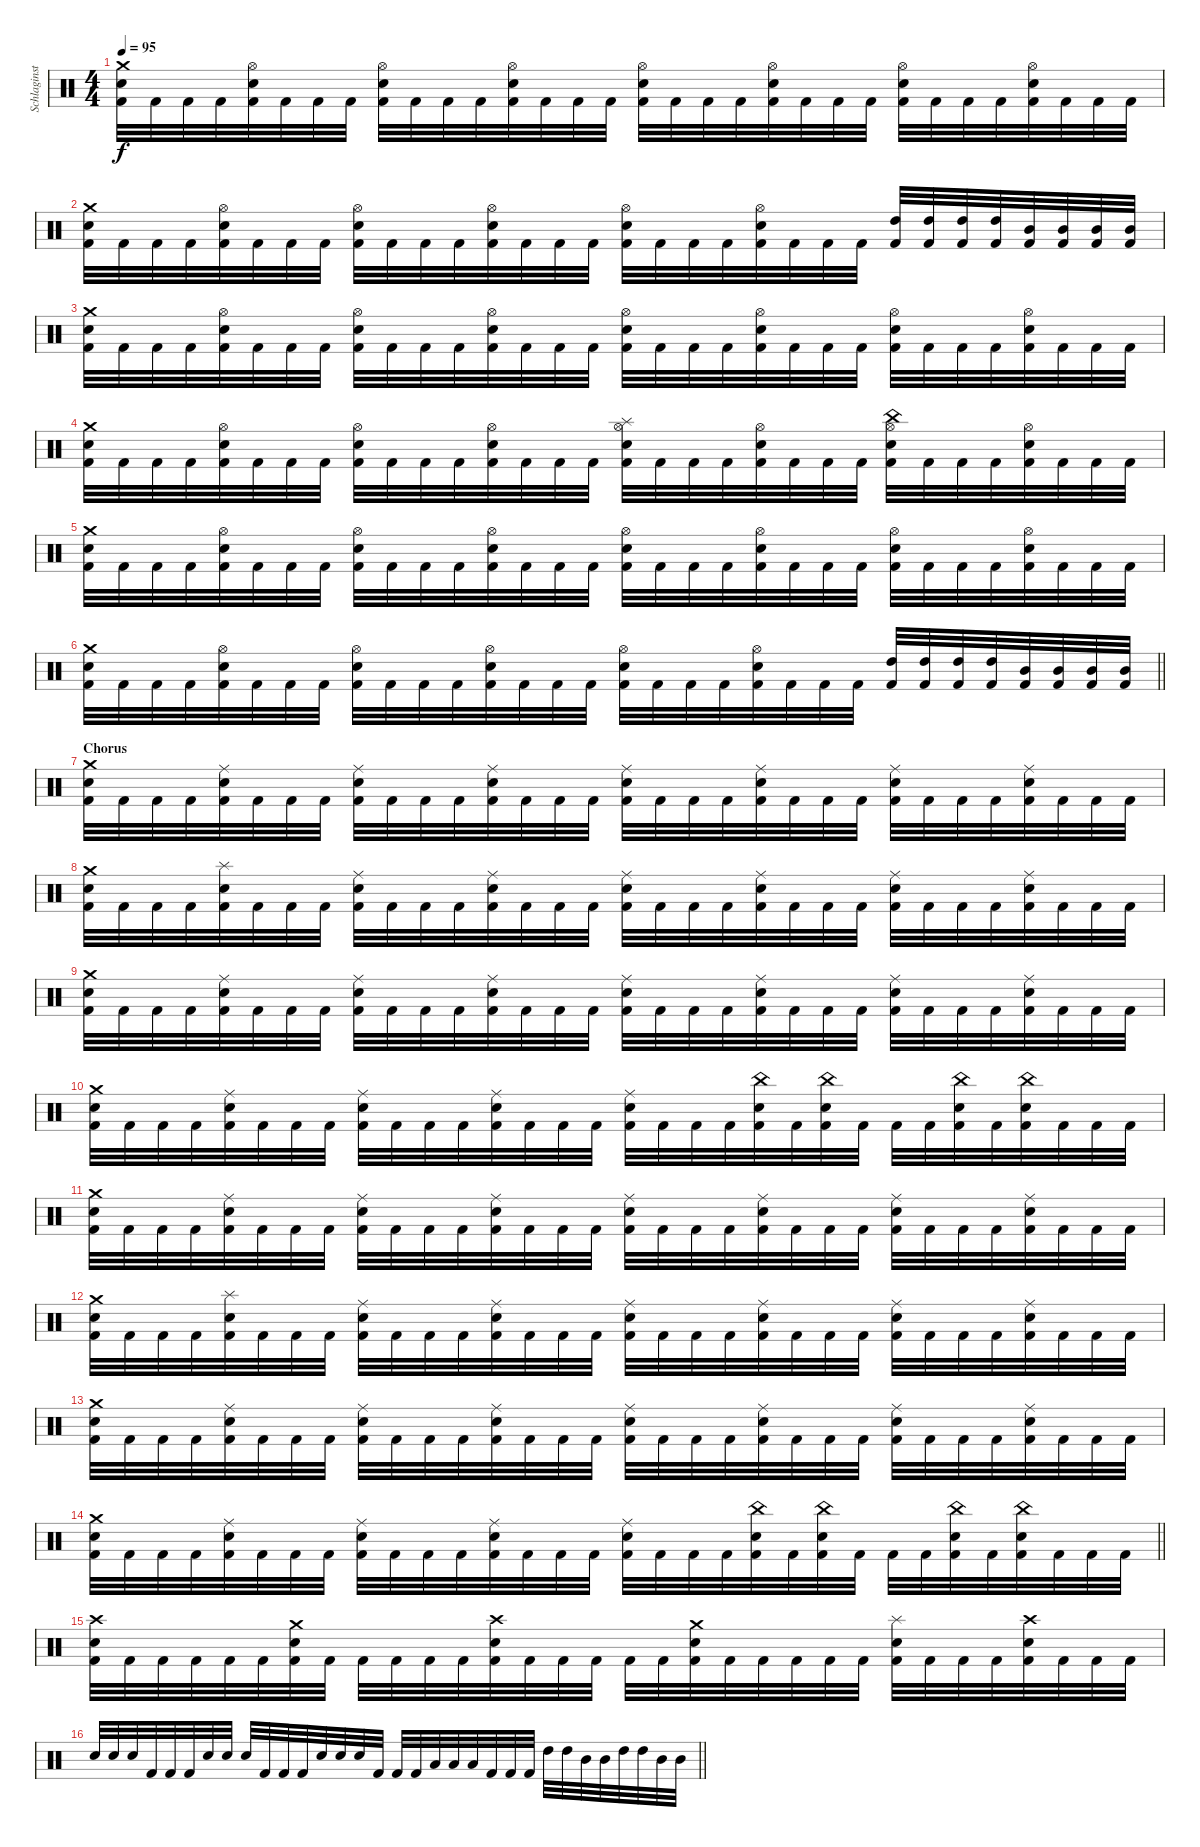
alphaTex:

\track ("Schlaginstrumente - Auswahl" "Schlaginst") {instrument percussion}
\staff {score}
\articulation defaults
\ts (4 4)
\tempo 95
\clef neutral
\ks c
("Crash medium (hit)" "Snare (hit) 2" "Kick (hit) 2").32{dy f} "Kick (hit) 2".32 "Kick (hit) 2".32 "Kick (hit) 2".32 ("Snare (hit) 2" "Hi-Hat (open)" "Kick (hit) 2").32 "Kick (hit) 2".32 "Kick (hit) 2".32 "Kick (hit) 2".32 ("Snare (hit) 2" "Hi-Hat (open)" "Kick (hit) 2").32 "Kick (hit) 2".32 "Kick (hit) 2".32 "Kick (hit) 2".32 ("Snare (hit) 2" "Hi-Hat (open)" "Kick (hit) 2").32 "Kick (hit) 2".32 "Kick (hit) 2".32 "Kick (hit) 2".32 ("Snare (hit) 2" "Hi-Hat (open)" "Kick (hit) 2").32 "Kick (hit) 2".32 "Kick (hit) 2".32 "Kick (hit) 2".32 ("Snare (hit) 2" "Hi-Hat (open)" "Kick (hit) 2").32 "Kick (hit) 2".32 "Kick (hit) 2".32 "Kick (hit) 2".32 ("Snare (hit) 2" "Hi-Hat (open)" "Kick (hit) 2").32 "Kick (hit) 2".32 "Kick (hit) 2".32 "Kick (hit) 2".32 ("Snare (hit) 2" "Hi-Hat (open)" "Kick (hit) 2").32 "Kick (hit) 2".32 "Kick (hit) 2".32 "Kick (hit) 2".32 |
("Crash medium (hit)" "Snare (hit) 2" "Kick (hit) 2").32 "Kick (hit) 2".32 "Kick (hit) 2".32 "Kick (hit) 2".32 ("Snare (hit) 2" "Hi-Hat (open)" "Kick (hit) 2").32 "Kick (hit) 2".32 "Kick (hit) 2".32 "Kick (hit) 2".32 ("Snare (hit) 2" "Hi-Hat (open)" "Kick (hit) 2").32 "Kick (hit) 2".32 "Kick (hit) 2".32 "Kick (hit) 2".32 ("Snare (hit) 2" "Hi-Hat (open)" "Kick (hit) 2").32 "Kick (hit) 2".32 "Kick (hit) 2".32 "Kick (hit) 2".32 ("Snare (hit) 2" "Hi-Hat (open)" "Kick (hit) 2").32 "Kick (hit) 2".32 "Kick (hit) 2".32 "Kick (hit) 2".32 ("Snare (hit) 2" "Hi-Hat (open)" "Kick (hit) 2").32 "Kick (hit) 2".32 "Kick (hit) 2".32 "Kick (hit) 2".32 ("High Tom (hit)" "Kick (hit) 2").32 ("High Tom (hit)" "Kick (hit) 2").32 ("High Tom (hit)" "Kick (hit) 2").32 ("High Tom (hit)" "Kick (hit) 2").32 ("Mid Tom (hit)" "Kick (hit) 2").32 ("Mid Tom (hit)" "Kick (hit) 2").32 ("Mid Tom (hit)" "Kick (hit) 2").32 ("Mid Tom (hit)" "Kick (hit) 2").32 |
("Crash medium (hit)" "Snare (hit) 2" "Kick (hit) 2").32 "Kick (hit) 2".32 "Kick (hit) 2".32 "Kick (hit) 2".32 ("Snare (hit) 2" "Hi-Hat (open)" "Kick (hit) 2").32 "Kick (hit) 2".32 "Kick (hit) 2".32 "Kick (hit) 2".32 ("Snare (hit) 2" "Hi-Hat (open)" "Kick (hit) 2").32 "Kick (hit) 2".32 "Kick (hit) 2".32 "Kick (hit) 2".32 ("Snare (hit) 2" "Hi-Hat (open)" "Kick (hit) 2").32 "Kick (hit) 2".32 "Kick (hit) 2".32 "Kick (hit) 2".32 ("Snare (hit) 2" "Hi-Hat (open)" "Kick (hit) 2").32 "Kick (hit) 2".32 "Kick (hit) 2".32 "Kick (hit) 2".32 ("Snare (hit) 2" "Hi-Hat (open)" "Kick (hit) 2").32 "Kick (hit) 2".32 "Kick (hit) 2".32 "Kick (hit) 2".32 ("Snare (hit) 2" "Hi-Hat (open)" "Kick (hit) 2").32 "Kick (hit) 2".32 "Kick (hit) 2".32 "Kick (hit) 2".32 ("Snare (hit) 2" "Hi-Hat (open)" "Kick (hit) 2").32 "Kick (hit) 2".32 "Kick (hit) 2".32 "Kick (hit) 2".32 |
("Crash medium (hit)" "Snare (hit) 2" "Kick (hit) 2").32 "Kick (hit) 2".32 "Kick (hit) 2".32 "Kick (hit) 2".32 ("Snare (hit) 2" "Hi-Hat (open)" "Kick (hit) 2").32 "Kick (hit) 2".32 "Kick (hit) 2".32 "Kick (hit) 2".32 ("Snare (hit) 2" "Hi-Hat (open)" "Kick (hit) 2").32 "Kick (hit) 2".32 "Kick (hit) 2".32 "Kick (hit) 2".32 ("Snare (hit) 2" "Hi-Hat (open)" "Kick (hit) 2").32 "Kick (hit) 2".32 "Kick (hit) 2".32 "Kick (hit) 2".32 ("Splash (hit)" "Snare (hit) 2" "Hi-Hat (open)" "Kick (hit) 2").32 "Kick (hit) 2".32 "Kick (hit) 2".32 "Kick (hit) 2".32 ("Snare (hit) 2" "Hi-Hat (open)" "Kick (hit) 2").32 "Kick (hit) 2".32 "Kick (hit) 2".32 "Kick (hit) 2".32 ("China (hit)" "Snare (hit) 2" "Hi-Hat (open)" "Kick (hit) 2").32 "Kick (hit) 2".32 "Kick (hit) 2".32 "Kick (hit) 2".32 ("Snare (hit) 2" "Hi-Hat (open)" "Kick (hit) 2").32 "Kick (hit) 2".32 "Kick (hit) 2".32 "Kick (hit) 2".32 |
("Crash medium (hit)" "Snare (hit) 2" "Kick (hit) 2").32 "Kick (hit) 2".32 "Kick (hit) 2".32 "Kick (hit) 2".32 ("Snare (hit) 2" "Hi-Hat (open)" "Kick (hit) 2").32 "Kick (hit) 2".32 "Kick (hit) 2".32 "Kick (hit) 2".32 ("Snare (hit) 2" "Hi-Hat (open)" "Kick (hit) 2").32 "Kick (hit) 2".32 "Kick (hit) 2".32 "Kick (hit) 2".32 ("Snare (hit) 2" "Hi-Hat (open)" "Kick (hit) 2").32 "Kick (hit) 2".32 "Kick (hit) 2".32 "Kick (hit) 2".32 ("Snare (hit) 2" "Hi-Hat (open)" "Kick (hit) 2").32 "Kick (hit) 2".32 "Kick (hit) 2".32 "Kick (hit) 2".32 ("Snare (hit) 2" "Hi-Hat (open)" "Kick (hit) 2").32 "Kick (hit) 2".32 "Kick (hit) 2".32 "Kick (hit) 2".32 ("Snare (hit) 2" "Hi-Hat (open)" "Kick (hit) 2").32 "Kick (hit) 2".32 "Kick (hit) 2".32 "Kick (hit) 2".32 ("Snare (hit) 2" "Hi-Hat (open)" "Kick (hit) 2").32 "Kick (hit) 2".32 "Kick (hit) 2".32 "Kick (hit) 2".32 |
\barLineRight lightlight
("Crash medium (hit)" "Snare (hit) 2" "Kick (hit) 2").32 "Kick (hit) 2".32 "Kick (hit) 2".32 "Kick (hit) 2".32 ("Snare (hit) 2" "Hi-Hat (open)" "Kick (hit) 2").32 "Kick (hit) 2".32 "Kick (hit) 2".32 "Kick (hit) 2".32 ("Snare (hit) 2" "Hi-Hat (open)" "Kick (hit) 2").32 "Kick (hit) 2".32 "Kick (hit) 2".32 "Kick (hit) 2".32 ("Snare (hit) 2" "Hi-Hat (open)" "Kick (hit) 2").32 "Kick (hit) 2".32 "Kick (hit) 2".32 "Kick (hit) 2".32 ("Snare (hit) 2" "Hi-Hat (open)" "Kick (hit) 2").32 "Kick (hit) 2".32 "Kick (hit) 2".32 "Kick (hit) 2".32 ("Snare (hit) 2" "Hi-Hat (open)" "Kick (hit) 2").32 "Kick (hit) 2".32 "Kick (hit) 2".32 "Kick (hit) 2".32 ("High Tom (hit)" "Kick (hit) 2").32 ("High Tom (hit)" "Kick (hit) 2").32 ("High Tom (hit)" "Kick (hit) 2").32 ("High Tom (hit)" "Kick (hit) 2").32 ("Mid Tom (hit)" "Kick (hit) 2").32 ("Mid Tom (hit)" "Kick (hit) 2").32 ("Mid Tom (hit)" "Kick (hit) 2").32 ("Mid Tom (hit)" "Kick (hit) 2").32 |
\section ("" "Chorus")
("Crash medium (hit)" "Snare (hit) 2" "Kick (hit) 2").32 "Kick (hit) 2".32 "Kick (hit) 2".32 "Kick (hit) 2".32 ("Snare (hit) 2" "Ride (middle)" "Kick (hit) 2").32 "Kick (hit) 2".32 "Kick (hit) 2".32 "Kick (hit) 2".32 ("Snare (hit) 2" "Ride (middle)" "Kick (hit) 2").32 "Kick (hit) 2".32 "Kick (hit) 2".32 "Kick (hit) 2".32 ("Snare (hit) 2" "Ride (middle)" "Kick (hit) 2").32 "Kick (hit) 2".32 "Kick (hit) 2".32 "Kick (hit) 2".32 ("Snare (hit) 2" "Ride (middle)" "Kick (hit) 2").32 "Kick (hit) 2".32 "Kick (hit) 2".32 "Kick (hit) 2".32 ("Snare (hit) 2" "Ride (middle)" "Kick (hit) 2").32 "Kick (hit) 2".32 "Kick (hit) 2".32 "Kick (hit) 2".32 ("Snare (hit) 2" "Ride (middle)" "Kick (hit) 2").32 "Kick (hit) 2".32 "Kick (hit) 2".32 "Kick (hit) 2".32 ("Snare (hit) 2" "Ride (middle)" "Kick (hit) 2").32 "Kick (hit) 2".32 "Kick (hit) 2".32 "Kick (hit) 2".32 |
("Crash medium (hit)" "Snare (hit) 2" "Kick (hit) 2").32 "Kick (hit) 2".32 "Kick (hit) 2".32 "Kick (hit) 2".32 ("Snare (hit) 2" "Splash (hit)" "Kick (hit) 2").32 "Kick (hit) 2".32 "Kick (hit) 2".32 "Kick (hit) 2".32 ("Snare (hit) 2" "Ride (middle)" "Kick (hit) 2").32 "Kick (hit) 2".32 "Kick (hit) 2".32 "Kick (hit) 2".32 ("Snare (hit) 2" "Ride (middle)" "Kick (hit) 2").32 "Kick (hit) 2".32 "Kick (hit) 2".32 "Kick (hit) 2".32 ("Snare (hit) 2" "Ride (middle)" "Kick (hit) 2").32 "Kick (hit) 2".32 "Kick (hit) 2".32 "Kick (hit) 2".32 ("Snare (hit) 2" "Ride (middle)" "Kick (hit) 2").32 "Kick (hit) 2".32 "Kick (hit) 2".32 "Kick (hit) 2".32 ("Snare (hit) 2" "Ride (middle)" "Kick (hit) 2").32 "Kick (hit) 2".32 "Kick (hit) 2".32 "Kick (hit) 2".32 ("Snare (hit) 2" "Ride (middle)" "Kick (hit) 2").32 "Kick (hit) 2".32 "Kick (hit) 2".32 "Kick (hit) 2".32 |
("Crash medium (hit)" "Snare (hit) 2" "Kick (hit) 2").32 "Kick (hit) 2".32 "Kick (hit) 2".32 "Kick (hit) 2".32 ("Snare (hit) 2" "Ride (middle)" "Kick (hit) 2").32 "Kick (hit) 2".32 "Kick (hit) 2".32 "Kick (hit) 2".32 ("Snare (hit) 2" "Ride (middle)" "Kick (hit) 2").32 "Kick (hit) 2".32 "Kick (hit) 2".32 "Kick (hit) 2".32 ("Snare (hit) 2" "Ride (middle)" "Kick (hit) 2").32 "Kick (hit) 2".32 "Kick (hit) 2".32 "Kick (hit) 2".32 ("Snare (hit) 2" "Ride (middle)" "Kick (hit) 2").32 "Kick (hit) 2".32 "Kick (hit) 2".32 "Kick (hit) 2".32 ("Snare (hit) 2" "Ride (middle)" "Kick (hit) 2").32 "Kick (hit) 2".32 "Kick (hit) 2".32 "Kick (hit) 2".32 ("Snare (hit) 2" "Ride (middle)" "Kick (hit) 2").32 "Kick (hit) 2".32 "Kick (hit) 2".32 "Kick (hit) 2".32 ("Snare (hit) 2" "Ride (middle)" "Kick (hit) 2").32 "Kick (hit) 2".32 "Kick (hit) 2".32 "Kick (hit) 2".32 |
("Crash medium (hit)" "Snare (hit) 2" "Kick (hit) 2").32 "Kick (hit) 2".32 "Kick (hit) 2".32 "Kick (hit) 2".32 ("Snare (hit) 2" "Ride (middle)" "Kick (hit) 2").32 "Kick (hit) 2".32 "Kick (hit) 2".32 "Kick (hit) 2".32 ("Snare (hit) 2" "Ride (middle)" "Kick (hit) 2").32 "Kick (hit) 2".32 "Kick (hit) 2".32 "Kick (hit) 2".32 ("Snare (hit) 2" "Ride (middle)" "Kick (hit) 2").32 "Kick (hit) 2".32 "Kick (hit) 2".32 "Kick (hit) 2".32 ("Snare (hit) 2" "Ride (middle)" "Kick (hit) 2").32 "Kick (hit) 2".32 "Kick (hit) 2".32 "Kick (hit) 2".32 ("China (hit)" "Snare (hit) 2" "Kick (hit) 2").32 "Kick (hit) 2".32 ("China (hit)" "Snare (hit) 2" "Kick (hit) 2").32 "Kick (hit) 2".32 "Kick (hit) 2".32 "Kick (hit) 2".32 ("China (hit)" "Snare (hit) 2" "Kick (hit) 2").32 "Kick (hit) 2".32 ("China (hit)" "Snare (hit) 2" "Kick (hit) 2").32 "Kick (hit) 2".32 "Kick (hit) 2".32 "Kick (hit) 2".32 |
("Crash medium (hit)" "Snare (hit) 2" "Kick (hit) 2").32 "Kick (hit) 2".32 "Kick (hit) 2".32 "Kick (hit) 2".32 ("Snare (hit) 2" "Ride (middle)" "Kick (hit) 2").32 "Kick (hit) 2".32 "Kick (hit) 2".32 "Kick (hit) 2".32 ("Snare (hit) 2" "Ride (middle)" "Kick (hit) 2").32 "Kick (hit) 2".32 "Kick (hit) 2".32 "Kick (hit) 2".32 ("Snare (hit) 2" "Ride (middle)" "Kick (hit) 2").32 "Kick (hit) 2".32 "Kick (hit) 2".32 "Kick (hit) 2".32 ("Snare (hit) 2" "Ride (middle)" "Kick (hit) 2").32 "Kick (hit) 2".32 "Kick (hit) 2".32 "Kick (hit) 2".32 ("Snare (hit) 2" "Ride (middle)" "Kick (hit) 2").32 "Kick (hit) 2".32 "Kick (hit) 2".32 "Kick (hit) 2".32 ("Snare (hit) 2" "Ride (middle)" "Kick (hit) 2").32 "Kick (hit) 2".32 "Kick (hit) 2".32 "Kick (hit) 2".32 ("Snare (hit) 2" "Ride (middle)" "Kick (hit) 2").32 "Kick (hit) 2".32 "Kick (hit) 2".32 "Kick (hit) 2".32 |
("Crash medium (hit)" "Snare (hit) 2" "Kick (hit) 2").32 "Kick (hit) 2".32 "Kick (hit) 2".32 "Kick (hit) 2".32 ("Snare (hit) 2" "Splash (hit)" "Kick (hit) 2").32 "Kick (hit) 2".32 "Kick (hit) 2".32 "Kick (hit) 2".32 ("Snare (hit) 2" "Ride (middle)" "Kick (hit) 2").32 "Kick (hit) 2".32 "Kick (hit) 2".32 "Kick (hit) 2".32 ("Snare (hit) 2" "Ride (middle)" "Kick (hit) 2").32 "Kick (hit) 2".32 "Kick (hit) 2".32 "Kick (hit) 2".32 ("Snare (hit) 2" "Ride (middle)" "Kick (hit) 2").32 "Kick (hit) 2".32 "Kick (hit) 2".32 "Kick (hit) 2".32 ("Snare (hit) 2" "Ride (middle)" "Kick (hit) 2").32 "Kick (hit) 2".32 "Kick (hit) 2".32 "Kick (hit) 2".32 ("Snare (hit) 2" "Ride (middle)" "Kick (hit) 2").32 "Kick (hit) 2".32 "Kick (hit) 2".32 "Kick (hit) 2".32 ("Snare (hit) 2" "Ride (middle)" "Kick (hit) 2").32 "Kick (hit) 2".32 "Kick (hit) 2".32 "Kick (hit) 2".32 |
("Crash medium (hit)" "Snare (hit) 2" "Kick (hit) 2").32 "Kick (hit) 2".32 "Kick (hit) 2".32 "Kick (hit) 2".32 ("Snare (hit) 2" "Ride (middle)" "Kick (hit) 2").32 "Kick (hit) 2".32 "Kick (hit) 2".32 "Kick (hit) 2".32 ("Snare (hit) 2" "Ride (middle)" "Kick (hit) 2").32 "Kick (hit) 2".32 "Kick (hit) 2".32 "Kick (hit) 2".32 ("Snare (hit) 2" "Ride (middle)" "Kick (hit) 2").32 "Kick (hit) 2".32 "Kick (hit) 2".32 "Kick (hit) 2".32 ("Snare (hit) 2" "Ride (middle)" "Kick (hit) 2").32 "Kick (hit) 2".32 "Kick (hit) 2".32 "Kick (hit) 2".32 ("Snare (hit) 2" "Ride (middle)" "Kick (hit) 2").32 "Kick (hit) 2".32 "Kick (hit) 2".32 "Kick (hit) 2".32 ("Snare (hit) 2" "Ride (middle)" "Kick (hit) 2").32 "Kick (hit) 2".32 "Kick (hit) 2".32 "Kick (hit) 2".32 ("Snare (hit) 2" "Ride (middle)" "Kick (hit) 2").32 "Kick (hit) 2".32 "Kick (hit) 2".32 "Kick (hit) 2".32 |
\barLineRight lightlight
("Crash medium (hit)" "Snare (hit) 2" "Kick (hit) 2").32 "Kick (hit) 2".32 "Kick (hit) 2".32 "Kick (hit) 2".32 ("Snare (hit) 2" "Ride (middle)" "Kick (hit) 2").32 "Kick (hit) 2".32 "Kick (hit) 2".32 "Kick (hit) 2".32 ("Snare (hit) 2" "Ride (middle)" "Kick (hit) 2").32 "Kick (hit) 2".32 "Kick (hit) 2".32 "Kick (hit) 2".32 ("Snare (hit) 2" "Ride (middle)" "Kick (hit) 2").32 "Kick (hit) 2".32 "Kick (hit) 2".32 "Kick (hit) 2".32 ("Snare (hit) 2" "Ride (middle)" "Kick (hit) 2").32 "Kick (hit) 2".32 "Kick (hit) 2".32 "Kick (hit) 2".32 ("China (hit)" "Snare (hit) 2" "Kick (hit) 2").32 "Kick (hit) 2".32 ("China (hit)" "Snare (hit) 2" "Kick (hit) 2").32 "Kick (hit) 2".32 "Kick (hit) 2".32 "Kick (hit) 2".32 ("China (hit)" "Snare (hit) 2" "Kick (hit) 2").32 "Kick (hit) 2".32 ("China (hit)" "Snare (hit) 2" "Kick (hit) 2").32 "Kick (hit) 2".32 "Kick (hit) 2".32 "Kick (hit) 2".32 |
("Crash high (hit)" "Snare (hit) 2" "Kick (hit) 2").32 "Kick (hit) 2".32 "Kick (hit) 2".32 "Kick (hit) 2".32 "Kick (hit) 2".32 "Kick (hit) 2".32 ("Crash medium (hit)" "Snare (hit) 2" "Kick (hit) 2").32 "Kick (hit) 2".32 "Kick (hit) 2".32 "Kick (hit) 2".32 "Kick (hit) 2".32 "Kick (hit) 2".32 ("Crash high (hit)" "Snare (hit) 2" "Kick (hit) 2").32 "Kick (hit) 2".32 "Kick (hit) 2".32 "Kick (hit) 2".32 "Kick (hit) 2".32 "Kick (hit) 2".32 ("Crash medium (hit)" "Snare (hit) 2" "Kick (hit) 2").32 "Kick (hit) 2".32 "Kick (hit) 2".32 "Kick (hit) 2".32 "Kick (hit) 2".32 "Kick (hit) 2".32 ("Splash (hit)" "Snare (hit) 2" "Kick (hit) 2").32 "Kick (hit) 2".32 "Kick (hit) 2".32 "Kick (hit) 2".32 ("Crash high (hit)" "Snare (hit) 2" "Kick (hit) 2").32 "Kick (hit) 2".32 "Kick (hit) 2".32 "Kick (hit) 2".32 |
\barLineRight lightlight "Snare (hit) 2".32 "Snare (hit) 2".32 "Snare (hit) 2".32 "Kick (hit) 2".32 "Kick (hit) 2".32 "Kick (hit) 2".32 "Snare (hit) 2".32 "Snare (hit) 2".32 "Snare (hit) 2".32 "Kick (hit) 2".32 "Kick (hit) 2".32 "Kick (hit) 2".32 "Snare (hit) 2".32 "Snare (hit) 2".32 "Snare (hit) 2".32 "Kick (hit) 2".32 "Kick (hit) 2".32 "Kick (hit) 2".32 "Low Tom (hit)".32 "Low Tom (hit)".32 "Low Tom (hit)".32 "Kick (hit) 2".32 "Kick (hit) 2".32 "Kick (hit) 2".32 "High Tom (hit)".32 "High Tom (hit)".32 "Mid Tom (hit)".32 "Mid Tom (hit)".32 "High Tom (hit)".32 "High Tom (hit)".32 "Mid Tom (hit)".32 "Mid Tom (hit)".32
